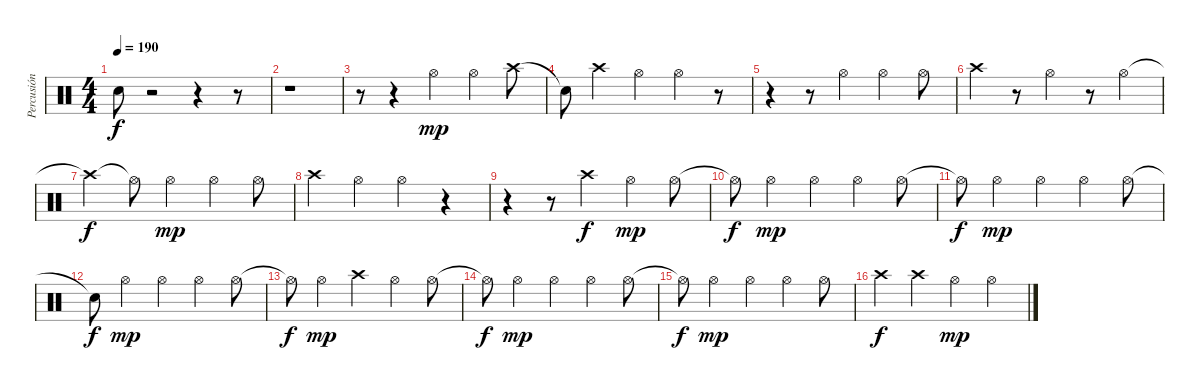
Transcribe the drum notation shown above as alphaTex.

\track ("Percusión" "Percusión") {instrument percussion}
\staff {score}
\articulation defaults
\ts (4 4)
\tempo 190
\clef neutral
\ks c "Snare (hit)"{t}.8{dy f}
r.2 r.4 r.8 |
r.1 |
r.8 r.4 "Hi-Hat (open)".4{dy mp} "Hi-Hat (open)".4 "Crash high (hit)".8 |
"Snare (hit)"{t}.8 "Crash high (hit)".4 "Hi-Hat (open)".4 "Hi-Hat (open)".4 r.8 |
r.4 r.8 "Hi-Hat (open)".4 "Hi-Hat (open)".4 "Hi-Hat (open)".8 |
"Crash high (hit)".4 r.8 "Hi-Hat (open)".4 r.8 "Hi-Hat (open)".4 |
"Crash high (hit)"{t}.4{dy f} "Hi-Hat (open)"{t}.8 "Hi-Hat (open)".4{dy mp} "Hi-Hat (open)".4 "Hi-Hat (open)".8 |
"Crash high (hit)".4 "Hi-Hat (open)".4 "Hi-Hat (open)".4 r.4 |
r.4 r.8 "Crash high (hit)".4{dy f} "Hi-Hat (open)".4{dy mp} "Hi-Hat (open)".8 |
"Hi-Hat (open)"{t}.8{dy f} "Hi-Hat (open)".4{dy mp} "Hi-Hat (open)".4 "Hi-Hat (open)".4 "Hi-Hat (open)".8 |
"Hi-Hat (open)"{t}.8{dy f} "Hi-Hat (open)".4{dy mp} "Hi-Hat (open)".4 "Hi-Hat (open)".4 "Hi-Hat (open)".8 |
"Snare (hit)"{t}.8{dy f} "Hi-Hat (open)".4{dy mp} "Hi-Hat (open)".4 "Hi-Hat (open)".4 "Hi-Hat (open)".8 |
"Hi-Hat (open)"{t}.8{dy f} "Hi-Hat (open)".4{dy mp} "Crash high (hit)".4 "Hi-Hat (open)".4 "Hi-Hat (open)".8 |
"Hi-Hat (open)"{t}.8{dy f} "Hi-Hat (open)".4{dy mp} "Hi-Hat (open)".4 "Hi-Hat (open)".4 "Hi-Hat (open)".8 |
"Hi-Hat (open)"{t}.8{dy f} "Hi-Hat (open)".4{dy mp} "Hi-Hat (open)".4 "Hi-Hat (open)".4 "Hi-Hat (open)".8 |
"Crash high (hit)".4{dy f} "Crash high (hit)".4 "Hi-Hat (open)".4{dy mp} "Hi-Hat (open)".4
